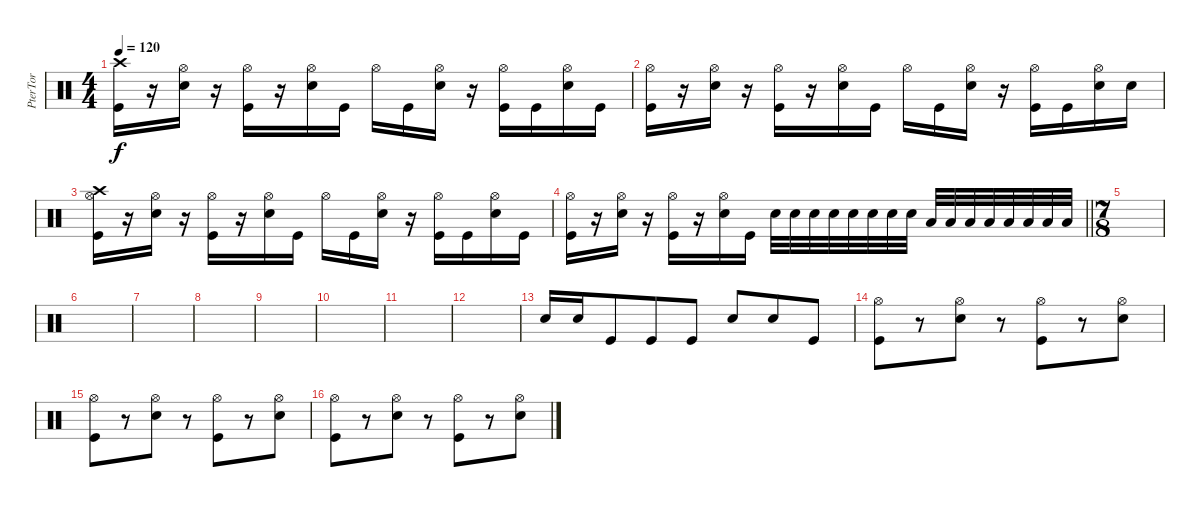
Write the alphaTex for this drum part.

\track ("PterTor" "PterTor") {instrument percussion}
\staff {score}
\articulation defaults
\ts (4 4)
\tempo 120
\clef neutral
\ks c
("Crash high (hit)" "Kick (hit)").16{dy f} r.16 ("Hi-Hat (open)" "Electric Snare (hit)").16 r.16 ("Hi-Hat (open)" "Kick (hit)").16 r.16 ("Hi-Hat (open)" "Electric Snare (hit)").16 "Kick (hit)".16 "Hi-Hat (open)".16 "Kick (hit)".16 ("Hi-Hat (open)" "Electric Snare (hit)").16 r.16 ("Hi-Hat (open)" "Kick (hit)").16 "Kick (hit)".16 ("Hi-Hat (open)" "Electric Snare (hit)").16 "Kick (hit)".16 |
("Hi-Hat (open)" "Kick (hit)").16 r.16 ("Hi-Hat (open)" "Electric Snare (hit)").16 r.16 ("Hi-Hat (open)" "Kick (hit)").16 r.16 ("Hi-Hat (open)" "Electric Snare (hit)").16 "Kick (hit)".16 "Hi-Hat (open)".16 "Kick (hit)".16 ("Hi-Hat (open)" "Electric Snare (hit)").16 r.16 ("Hi-Hat (open)" "Kick (hit)").16 "Kick (hit)".16 ("Hi-Hat (open)" "Electric Snare (hit)").16 "Electric Snare (hit)".16 |
("Crash high (hit)" "Hi-Hat (open)" "Kick (hit)").16 r.16 ("Hi-Hat (open)" "Electric Snare (hit)").16 r.16 ("Hi-Hat (open)" "Kick (hit)").16 r.16 ("Hi-Hat (open)" "Electric Snare (hit)").16 "Kick (hit)".16 "Hi-Hat (open)".16 "Kick (hit)".16 ("Hi-Hat (open)" "Electric Snare (hit)").16 r.16 ("Hi-Hat (open)" "Kick (hit)").16 "Kick (hit)".16 ("Hi-Hat (open)" "Electric Snare (hit)").16 "Kick (hit)".16 |
\barLineRight lightlight
("Hi-Hat (open)" "Kick (hit)").16 r.16 ("Hi-Hat (open)" "Electric Snare (hit)").16 r.16 ("Hi-Hat (open)" "Kick (hit)").16 r.16 ("Hi-Hat (open)" "Electric Snare (hit)").16 "Kick (hit)".16 "Electric Snare (hit)".32 "Electric Snare (hit)".32 "Electric Snare (hit)".32 "Electric Snare (hit)".32 "Electric Snare (hit)".32 "Electric Snare (hit)".32 "Electric Snare (hit)".32 "Electric Snare (hit)".32 "Low Tom (hit)".32 "Low Tom (hit)".32 "Low Tom (hit)".32 "Low Tom (hit)".32 "Low Floor Tom (hit)".32 "Low Floor Tom (hit)".32 "Low Floor Tom (hit)".32 "Low Floor Tom (hit)".32 |
\ts (7 8)
|
|
|
|
|
|
|
|
"Electric Snare (hit)".16 "Electric Snare (hit)".16 "Kick (hit)".8 "Kick (hit)".8 "Kick (hit)".8 "Electric Snare (hit)".8 "Electric Snare (hit)".8 "Kick (hit)".8 |
("Hi-Hat (open)" "Kick (hit)").8 r.8 ("Electric Snare (hit)" "Hi-Hat (open)").8 r.8 ("Hi-Hat (open)" "Kick (hit)").8 r.8 ("Electric Snare (hit)" "Hi-Hat (open)").8 |
("Hi-Hat (open)" "Kick (hit)").8 r.8 ("Electric Snare (hit)" "Hi-Hat (open)").8 r.8 ("Hi-Hat (open)" "Kick (hit)").8 r.8 ("Electric Snare (hit)" "Hi-Hat (open)").8 |
("Hi-Hat (open)" "Kick (hit)").8 r.8 ("Electric Snare (hit)" "Hi-Hat (open)").8 r.8 ("Hi-Hat (open)" "Kick (hit)").8 r.8 ("Electric Snare (hit)" "Hi-Hat (open)").8
